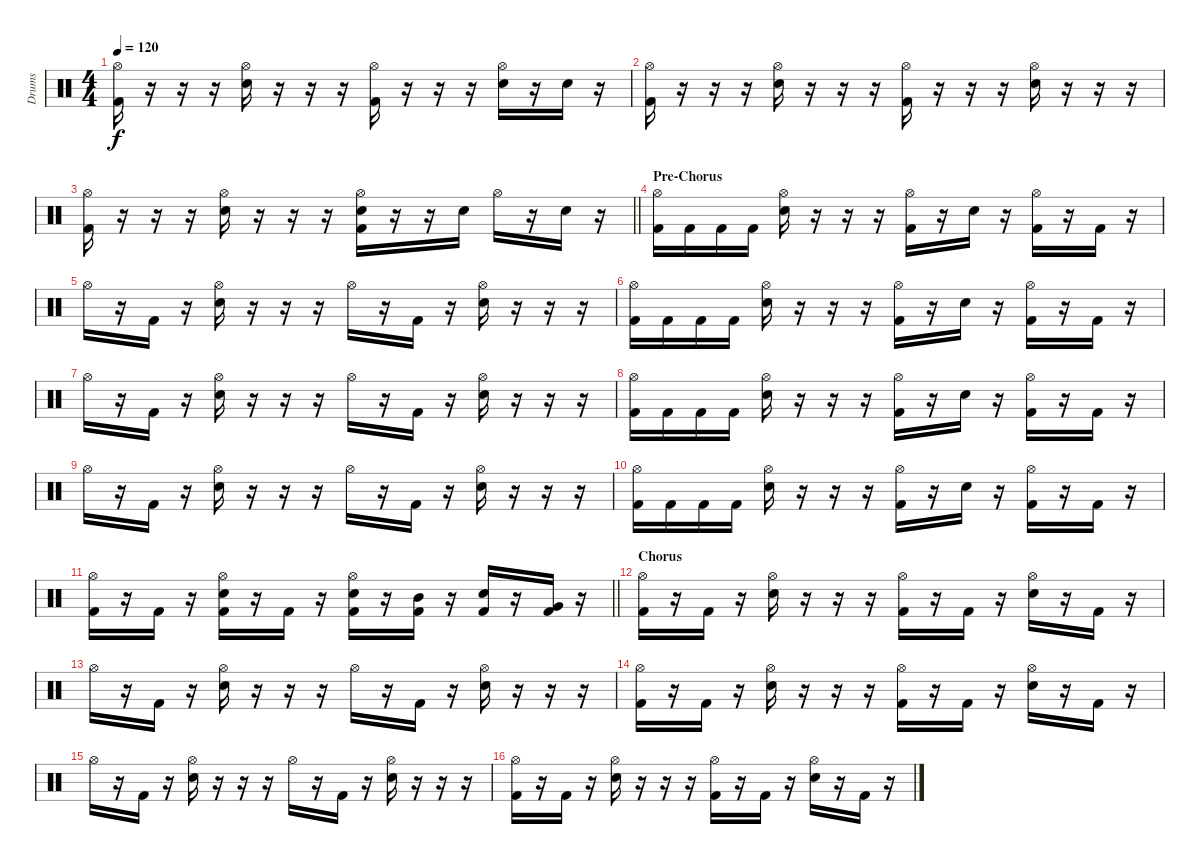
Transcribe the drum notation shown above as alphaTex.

\track ("Drums" "Drums") {instrument percussion}
\staff {score}
\articulation defaults
\ts (4 4)
\tempo 120
\clef neutral
\ks c
("Hi-Hat (open)" "Kick (hit) 2").16{dy f} r.16 r.16 r.16 ("Hi-Hat (open)" "Snare (hit) 2").16 r.16 r.16 r.16 ("Hi-Hat (open)" "Kick (hit) 2").16 r.16 r.16 r.16 ("Hi-Hat (open)" "Snare (hit) 2").16 r.16 "Snare (hit) 2".16 r.16 |
("Hi-Hat (open)" "Kick (hit) 2").16 r.16 r.16 r.16 ("Hi-Hat (open)" "Snare (hit) 2").16 r.16 r.16 r.16 ("Hi-Hat (open)" "Kick (hit) 2").16 r.16 r.16 r.16 ("Hi-Hat (open)" "Snare (hit) 2").16 r.16 r.16 r.16 |
\barLineRight lightlight
("Hi-Hat (open)" "Kick (hit) 2").16 r.16 r.16 r.16 ("Hi-Hat (open)" "Snare (hit) 2").16 r.16 r.16 r.16 ("Hi-Hat (open)" "Snare (hit) 2" "Kick (hit) 2").16 r.16 r.16 "Snare (hit) 2".16 "Hi-Hat (open)".16 r.16 "Snare (hit) 2".16 r.16 |
\section ("" "Pre-Chorus")
("Hi-Hat (open)" "Kick (hit) 2").16 "Kick (hit) 2".16 "Kick (hit) 2".16 "Kick (hit) 2".16 ("Hi-Hat (open)" "Snare (hit) 2").16 r.16 r.16 r.16 ("Hi-Hat (open)" "Kick (hit) 2").16 r.16 "Snare (hit) 2".16 r.16 ("Hi-Hat (open)" "Kick (hit) 2").16 r.16 "Kick (hit) 2".16 r.16 |
"Hi-Hat (open)".16 r.16 "Kick (hit) 2".16 r.16 ("Hi-Hat (open)" "Snare (hit) 2").16 r.16 r.16 r.16 "Hi-Hat (open)".16 r.16 "Kick (hit) 2".16 r.16 ("Hi-Hat (open)" "Snare (hit) 2").16 r.16 r.16 r.16 |
("Hi-Hat (open)" "Kick (hit) 2").16 "Kick (hit) 2".16 "Kick (hit) 2".16 "Kick (hit) 2".16 ("Hi-Hat (open)" "Snare (hit) 2").16 r.16 r.16 r.16 ("Hi-Hat (open)" "Kick (hit) 2").16 r.16 "Snare (hit) 2".16 r.16 ("Hi-Hat (open)" "Kick (hit) 2").16 r.16 "Kick (hit) 2".16 r.16 |
"Hi-Hat (open)".16 r.16 "Kick (hit) 2".16 r.16 ("Hi-Hat (open)" "Snare (hit) 2").16 r.16 r.16 r.16 "Hi-Hat (open)".16 r.16 "Kick (hit) 2".16 r.16 ("Hi-Hat (open)" "Snare (hit) 2").16 r.16 r.16 r.16 |
("Hi-Hat (open)" "Kick (hit) 2").16 "Kick (hit) 2".16 "Kick (hit) 2".16 "Kick (hit) 2".16 ("Hi-Hat (open)" "Snare (hit) 2").16 r.16 r.16 r.16 ("Hi-Hat (open)" "Kick (hit) 2").16 r.16 "Snare (hit) 2".16 r.16 ("Hi-Hat (open)" "Kick (hit) 2").16 r.16 "Kick (hit) 2".16 r.16 |
"Hi-Hat (open)".16 r.16 "Kick (hit) 2".16 r.16 ("Hi-Hat (open)" "Snare (hit) 2").16 r.16 r.16 r.16 "Hi-Hat (open)".16 r.16 "Kick (hit) 2".16 r.16 ("Hi-Hat (open)" "Snare (hit) 2").16 r.16 r.16 r.16 |
("Hi-Hat (open)" "Kick (hit) 2").16 "Kick (hit) 2".16 "Kick (hit) 2".16 "Kick (hit) 2".16 ("Hi-Hat (open)" "Snare (hit) 2").16 r.16 r.16 r.16 ("Hi-Hat (open)" "Kick (hit) 2").16 r.16 "Snare (hit) 2".16 r.16 ("Hi-Hat (open)" "Kick (hit) 2").16 r.16 "Kick (hit) 2".16 r.16 |
\barLineRight lightlight
("Hi-Hat (open)" "Kick (hit) 2").16 r.16 "Kick (hit) 2".16 r.16 ("Hi-Hat (open)" "Snare (hit) 2" "Kick (hit) 2").16 r.16 "Kick (hit) 2".16 r.16 ("Hi-Hat (open)" "Snare (hit) 2" "Kick (hit) 2").16 r.16 ("Mid Tom (hit)" "Kick (hit) 2").16 r.16 ("Snare (hit) 2" "Kick (hit) 2").16 r.16 ("Very Low Tom (hit)" "Kick (hit) 2").16 r.16 |
\section ("" "Chorus")
("Hi-Hat (open)" "Kick (hit) 2").16 r.16 "Kick (hit) 2".16 r.16 ("Hi-Hat (open)" "Snare (hit) 2").16 r.16 r.16 r.16 ("Hi-Hat (open)" "Kick (hit) 2").16 r.16 "Kick (hit) 2".16 r.16 ("Hi-Hat (open)" "Snare (hit) 2").16 r.16 "Kick (hit) 2".16 r.16 |
"Hi-Hat (open)".16 r.16 "Kick (hit) 2".16 r.16 ("Hi-Hat (open)" "Snare (hit) 2").16 r.16 r.16 r.16 "Hi-Hat (open)".16 r.16 "Kick (hit) 2".16 r.16 ("Hi-Hat (open)" "Snare (hit) 2").16 r.16 r.16 r.16 |
("Hi-Hat (open)" "Kick (hit) 2").16 r.16 "Kick (hit) 2".16 r.16 ("Hi-Hat (open)" "Snare (hit) 2").16 r.16 r.16 r.16 ("Hi-Hat (open)" "Kick (hit) 2").16 r.16 "Kick (hit) 2".16 r.16 ("Hi-Hat (open)" "Snare (hit) 2").16 r.16 "Kick (hit) 2".16 r.16 |
"Hi-Hat (open)".16 r.16 "Kick (hit) 2".16 r.16 ("Hi-Hat (open)" "Snare (hit) 2").16 r.16 r.16 r.16 "Hi-Hat (open)".16 r.16 "Kick (hit) 2".16 r.16 ("Hi-Hat (open)" "Snare (hit) 2").16 r.16 r.16 r.16 |
("Hi-Hat (open)" "Kick (hit) 2").16 r.16 "Kick (hit) 2".16 r.16 ("Hi-Hat (open)" "Snare (hit) 2").16 r.16 r.16 r.16 ("Hi-Hat (open)" "Kick (hit) 2").16 r.16 "Kick (hit) 2".16 r.16 ("Hi-Hat (open)" "Snare (hit) 2").16 r.16 "Kick (hit) 2".16 r.16
